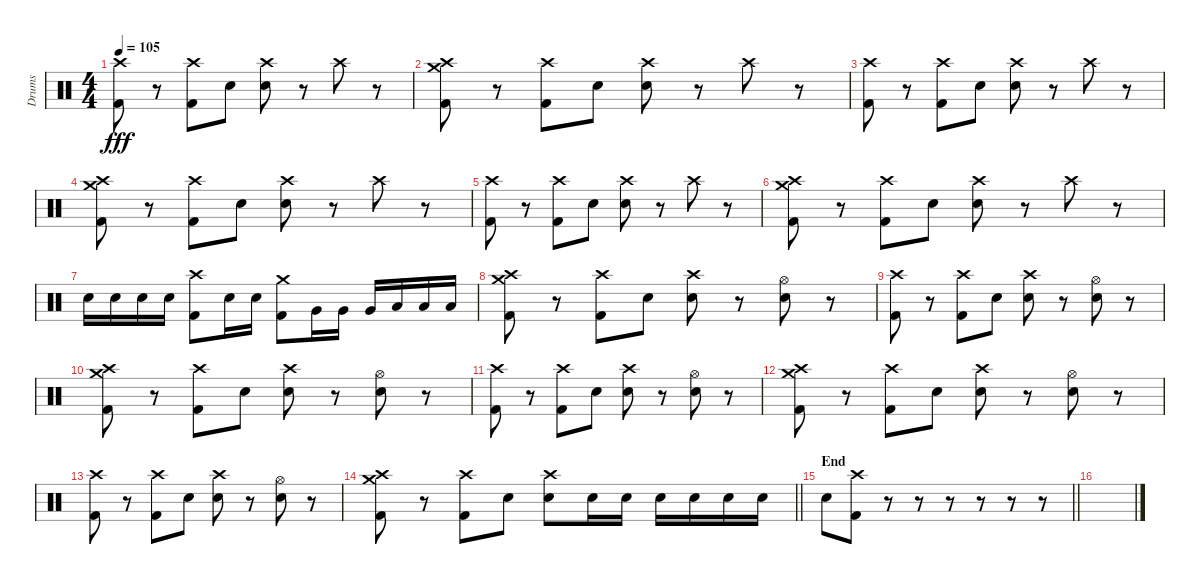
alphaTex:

\track ("Drums" "Drums") {instrument percussion}
\staff {score}
\articulation defaults
\ts (4 4)
\tempo 105
\clef neutral
\ks c
("Crash high (hit)" "Kick (hit) 2").8{dy fff} r.8 ("Crash high (hit)" "Kick (hit) 2").8 "Electric Snare (hit)".8 ("Crash high (hit)" "Electric Snare (hit)").8 r.8 "Crash high (hit)".8 r.8 |
("Crash medium (hit)" "Crash high (hit)" "Kick (hit) 2").8 r.8 ("Crash high (hit)" "Kick (hit) 2").8 "Electric Snare (hit)".8 ("Crash high (hit)" "Electric Snare (hit)").8 r.8 "Crash high (hit)".8 r.8 |
("Crash high (hit)" "Kick (hit) 2").8 r.8 ("Crash high (hit)" "Kick (hit) 2").8 "Electric Snare (hit)".8 ("Crash high (hit)" "Electric Snare (hit)").8 r.8 "Crash high (hit)".8 r.8 |
("Crash medium (hit)" "Crash high (hit)" "Kick (hit) 2").8 r.8 ("Crash high (hit)" "Kick (hit) 2").8 "Electric Snare (hit)".8 ("Crash high (hit)" "Electric Snare (hit)").8 r.8 "Crash high (hit)".8 r.8 |
("Crash high (hit)" "Kick (hit) 2").8 r.8 ("Crash high (hit)" "Kick (hit) 2").8 "Electric Snare (hit)".8 ("Crash high (hit)" "Electric Snare (hit)").8 r.8 "Crash high (hit)".8 r.8 |
("Crash medium (hit)" "Crash high (hit)" "Kick (hit) 2").8 r.8 ("Crash high (hit)" "Kick (hit) 2").8 "Electric Snare (hit)".8 ("Crash high (hit)" "Electric Snare (hit)").8 r.8 "Crash high (hit)".8 r.8 |
"Electric Snare (hit)".16 "Electric Snare (hit)".16 "Electric Snare (hit)".16 "Electric Snare (hit)".16 ("Crash high (hit)" "Kick (hit) 2").8 "Electric Snare (hit)".16 "Electric Snare (hit)".16 ("Crash medium (hit)" "Kick (hit) 2").8 "Very Low Tom (hit)".16 "Very Low Tom (hit)".16 "Very Low Tom (hit)".16 "Low Floor Tom (hit)".16 "Low Floor Tom (hit)".16 "Low Floor Tom (hit)".16 |
("Crash medium (hit)" "Crash high (hit)" "Kick (hit) 2").8 r.8 ("Crash high (hit)" "Kick (hit) 2").8 "Electric Snare (hit)".8 ("Crash high (hit)" "Electric Snare (hit)").8 r.8 ("Hi-Hat (open)" "Electric Snare (hit)").8 r.8 |
("Crash high (hit)" "Kick (hit) 2").8 r.8 ("Crash high (hit)" "Kick (hit) 2").8 "Electric Snare (hit)".8 ("Crash high (hit)" "Electric Snare (hit)").8 r.8 ("Hi-Hat (open)" "Electric Snare (hit)").8 r.8 |
("Crash medium (hit)" "Crash high (hit)" "Kick (hit) 2").8 r.8 ("Crash high (hit)" "Kick (hit) 2").8 "Electric Snare (hit)".8 ("Crash high (hit)" "Electric Snare (hit)").8 r.8 ("Hi-Hat (open)" "Electric Snare (hit)").8 r.8 |
("Crash high (hit)" "Kick (hit) 2").8 r.8 ("Crash high (hit)" "Kick (hit) 2").8 "Electric Snare (hit)".8 ("Crash high (hit)" "Electric Snare (hit)").8 r.8 ("Hi-Hat (open)" "Electric Snare (hit)").8 r.8 |
("Crash medium (hit)" "Crash high (hit)" "Kick (hit) 2").8 r.8 ("Crash high (hit)" "Kick (hit) 2").8 "Electric Snare (hit)".8 ("Crash high (hit)" "Electric Snare (hit)").8 r.8 ("Hi-Hat (open)" "Electric Snare (hit)").8 r.8 |
("Crash high (hit)" "Kick (hit) 2").8 r.8 ("Crash high (hit)" "Kick (hit) 2").8 "Electric Snare (hit)".8 ("Crash high (hit)" "Electric Snare (hit)").8 r.8 ("Hi-Hat (open)" "Electric Snare (hit)").8 r.8 |
\barLineRight lightlight
("Crash medium (hit)" "Crash high (hit)" "Kick (hit) 2").8 r.8 ("Crash high (hit)" "Kick (hit) 2").8 "Electric Snare (hit)".8 ("Crash high (hit)" "Electric Snare (hit)").8 "Electric Snare (hit)".16 "Electric Snare (hit)".16 "Electric Snare (hit)".16 "Electric Snare (hit)".16 "Electric Snare (hit)".16 "Electric Snare (hit)".16 |
\section ("" "End")
\barLineRight lightlight "Electric Snare (hit)".8
("Crash high (hit)" "Kick (hit) 2").8 r.8 r.8 r.8 r.8 r.8 r.8 |
\section ("" "")
